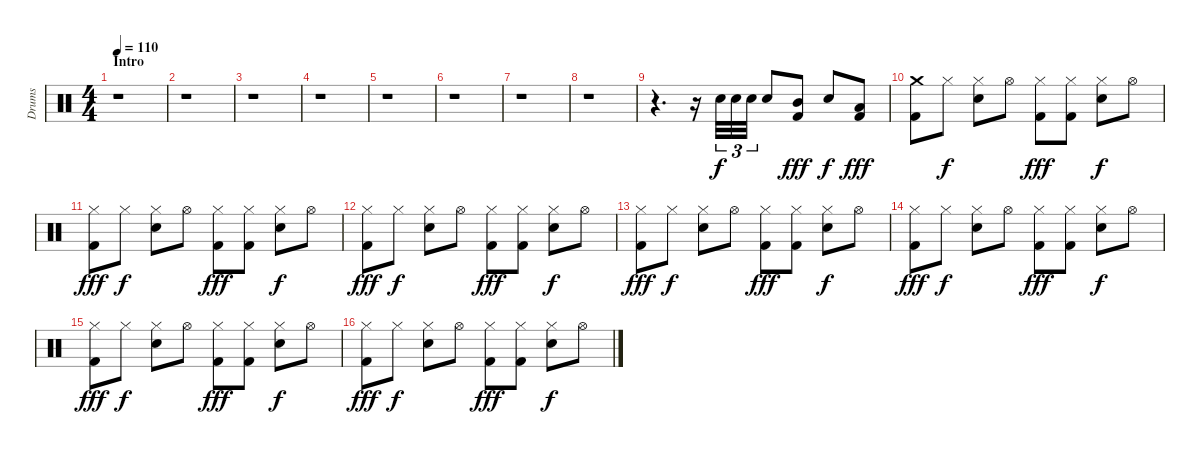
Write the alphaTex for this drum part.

\track ("Drums" "Drums") {instrument percussion}
\staff {score}
\articulation defaults
\ts (4 4)
\section ("" "Intro")
\tempo 110
\clef neutral
\ks c
r.1{dy f} |
r.1 |
r.1 |
r.1 |
r.1 |
r.1 |
r.1 |
r.1 |
r.4{d} r.16 "Snare (hit) 2".32{tu (3 2)} "Snare (hit) 2".32{tu (3 2)} "Snare (hit) 2".32{tu (3 2)} "Snare (hit) 2".8 ("Mid Tom (hit)" "Kick (hit) 2").8{dy fff} "Snare (hit) 2".8{dy f} ("Low Tom (hit)" "Kick (hit) 2").8{dy fff} |
("Crash medium (hit)" "Kick (hit) 2").8 "Hi-Hat (closed)".8{dy f} ("Hi-Hat (closed)" "Snare (hit) 2").8 "Hi-Hat (open)".8 ("Hi-Hat (closed)" "Kick (hit) 2").8{dy fff} ("Hi-Hat (closed)" "Kick (hit) 2").8 ("Hi-Hat (closed)" "Snare (hit) 2").8{dy f} "Hi-Hat (open)".8 |
("Hi-Hat (closed)" "Kick (hit) 2").8{dy fff} "Hi-Hat (closed)".8{dy f} ("Hi-Hat (closed)" "Snare (hit) 2").8 "Hi-Hat (open)".8 ("Hi-Hat (closed)" "Kick (hit) 2").8{dy fff} ("Hi-Hat (closed)" "Kick (hit) 2").8 ("Hi-Hat (closed)" "Snare (hit) 2").8{dy f} "Hi-Hat (open)".8 |
("Hi-Hat (closed)" "Kick (hit) 2").8{dy fff} "Hi-Hat (closed)".8{dy f} ("Hi-Hat (closed)" "Snare (hit) 2").8 "Hi-Hat (open)".8 ("Hi-Hat (closed)" "Kick (hit) 2").8{dy fff} ("Hi-Hat (closed)" "Kick (hit) 2").8 ("Hi-Hat (closed)" "Snare (hit) 2").8{dy f} "Hi-Hat (open)".8 |
("Hi-Hat (closed)" "Kick (hit) 2").8{dy fff} "Hi-Hat (closed)".8{dy f} ("Hi-Hat (closed)" "Snare (hit) 2").8 "Hi-Hat (open)".8 ("Hi-Hat (closed)" "Kick (hit) 2").8{dy fff} ("Hi-Hat (closed)" "Kick (hit) 2").8 ("Hi-Hat (closed)" "Snare (hit) 2").8{dy f} "Hi-Hat (open)".8 |
("Hi-Hat (closed)" "Kick (hit) 2").8{dy fff} "Hi-Hat (closed)".8{dy f} ("Hi-Hat (closed)" "Snare (hit) 2").8 "Hi-Hat (open)".8 ("Hi-Hat (closed)" "Kick (hit) 2").8{dy fff} ("Hi-Hat (closed)" "Kick (hit) 2").8 ("Hi-Hat (closed)" "Snare (hit) 2").8{dy f} "Hi-Hat (open)".8 |
("Hi-Hat (closed)" "Kick (hit) 2").8{dy fff} "Hi-Hat (closed)".8{dy f} ("Hi-Hat (closed)" "Snare (hit) 2").8 "Hi-Hat (open)".8 ("Hi-Hat (closed)" "Kick (hit) 2").8{dy fff} ("Hi-Hat (closed)" "Kick (hit) 2").8 ("Hi-Hat (closed)" "Snare (hit) 2").8{dy f} "Hi-Hat (open)".8 |
("Hi-Hat (closed)" "Kick (hit) 2").8{dy fff} "Hi-Hat (closed)".8{dy f} ("Hi-Hat (closed)" "Snare (hit) 2").8 "Hi-Hat (open)".8 ("Hi-Hat (closed)" "Kick (hit) 2").8{dy fff} ("Hi-Hat (closed)" "Kick (hit) 2").8 ("Hi-Hat (closed)" "Snare (hit) 2").8{dy f} "Hi-Hat (open)".8
